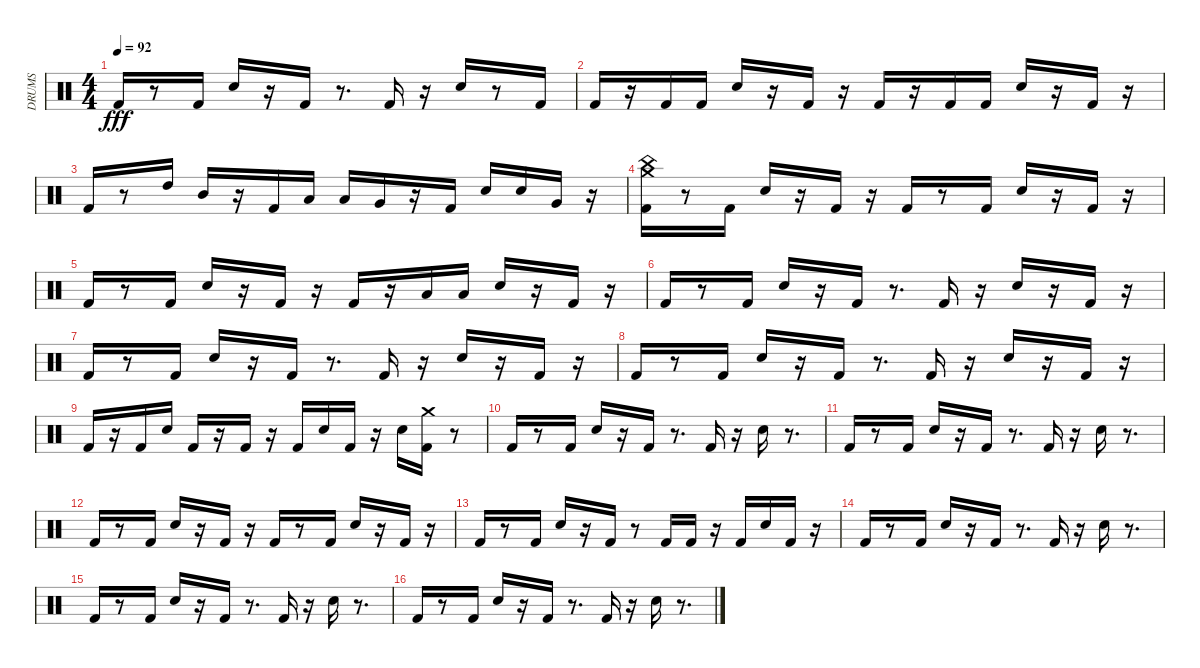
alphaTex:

\track ("DRUMS" "DRUMS") {instrument percussion}
\staff {score}
\articulation defaults
\ts (4 4)
\tempo 92
\clef neutral
\ks c "Kick (hit) 2".16{dy fff}
r.8 "Kick (hit) 2".16 "Electric Snare (hit)".16 r.16 "Kick (hit) 2".16 r.8{d} "Kick (hit) 2".16 r.16 "Electric Snare (hit)".16 r.8 "Kick (hit) 2".16 |
"Kick (hit) 2".16 r.16 "Kick (hit) 2".16 "Kick (hit) 2".16 "Electric Snare (hit)".16 r.16 "Kick (hit) 2".16 r.16 "Kick (hit) 2".16 r.16 "Kick (hit) 2".16 "Kick (hit) 2".16 "Electric Snare (hit)".16 r.16 "Kick (hit) 2".16 r.16 |
"Kick (hit) 2".16 r.8 "High Tom (hit)".16 "Mid Tom (hit)".16 r.16 "Kick (hit) 2".16 "Low Tom (hit)".16 "Low Floor Tom (hit)".16 "Very Low Tom (hit)".16 r.16 "Kick (hit) 2".16 "Electric Snare (hit)".16 "Electric Snare (hit)".16 "Very Low Tom (hit)".16 r.16 |
("Kick (hit) 2" "China (hit)" "Crash medium (hit)").16 r.8 "Kick (hit) 2".16 "Electric Snare (hit)".16 r.16 "Kick (hit) 2".16 r.16 "Kick (hit) 2".16 r.8 "Kick (hit) 2".16 "Electric Snare (hit)".16 r.16 "Kick (hit) 2".16 r.16 |
"Kick (hit) 2".16 r.8 "Kick (hit) 2".16 "Electric Snare (hit)".16 r.16 "Kick (hit) 2".16 r.16 "Kick (hit) 2".16 r.16 "Low Floor Tom (hit)".16 "Low Floor Tom (hit)".16 "Electric Snare (hit)".16 r.16 "Kick (hit) 2".16 r.16 |
"Kick (hit) 2".16 r.8 "Kick (hit) 2".16 "Electric Snare (hit)".16 r.16 "Kick (hit) 2".16 r.8{d} "Kick (hit) 2".16 r.16 "Electric Snare (hit)".16 r.16 "Kick (hit) 2".16 r.16 |
"Kick (hit) 2".16 r.8 "Kick (hit) 2".16 "Electric Snare (hit)".16 r.16 "Kick (hit) 2".16 r.8{d} "Kick (hit) 2".16 r.16 "Electric Snare (hit)".16 r.16 "Kick (hit) 2".16 r.16 |
"Kick (hit) 2".16 r.8 "Kick (hit) 2".16 "Electric Snare (hit)".16 r.16 "Kick (hit) 2".16 r.8{d} "Kick (hit) 2".16 r.16 "Electric Snare (hit)".16 r.16 "Kick (hit) 2".16 r.16 |
"Kick (hit) 2".16 r.16 "Kick (hit) 2".16 "Electric Snare (hit)".16 "Kick (hit) 2".16 r.16 "Kick (hit) 2".16 r.16 "Kick (hit) 2".16 "Electric Snare (hit)".16 "Kick (hit) 2".16 r.16 "Electric Snare (hit)".16 ("Kick (hit) 2" "Crash medium (hit)").16 r.8 |
"Kick (hit) 2".16 r.8 "Kick (hit) 2".16 "Electric Snare (hit)".16 r.16 "Kick (hit) 2".16 r.8{d} "Kick (hit) 2".16 r.16 "Electric Snare (hit)".16 r.8{d} |
"Kick (hit) 2".16 r.8 "Kick (hit) 2".16 "Electric Snare (hit)".16 r.16 "Kick (hit) 2".16 r.8{d} "Kick (hit) 2".16 r.16 "Electric Snare (hit)".16 r.8{d} |
"Kick (hit) 2".16 r.8 "Kick (hit) 2".16 "Electric Snare (hit)".16 r.16 "Kick (hit) 2".16 r.16 "Kick (hit) 2".16 r.8 "Kick (hit) 2".16 "Electric Snare (hit)".16 r.16 "Kick (hit) 2".16 r.16 |
"Kick (hit) 2".16 r.8 "Kick (hit) 2".16 "Electric Snare (hit)".16 r.16 "Kick (hit) 2".16 r.8 "Kick (hit) 2".16 "Kick (hit) 2".16 r.16 "Kick (hit) 2".16 "Electric Snare (hit)".16 "Kick (hit) 2".16 r.16 |
"Kick (hit) 2".16 r.8 "Kick (hit) 2".16 "Electric Snare (hit)".16 r.16 "Kick (hit) 2".16 r.8{d} "Kick (hit) 2".16 r.16 "Electric Snare (hit)".16 r.8{d} |
"Kick (hit) 2".16 r.8 "Kick (hit) 2".16 "Electric Snare (hit)".16 r.16 "Kick (hit) 2".16 r.8{d} "Kick (hit) 2".16 r.16 "Electric Snare (hit)".16 r.8{d} |
"Kick (hit) 2".16 r.8 "Kick (hit) 2".16 "Electric Snare (hit)".16 r.16 "Kick (hit) 2".16 r.8{d} "Kick (hit) 2".16 r.16 "Electric Snare (hit)".16 r.8{d}
